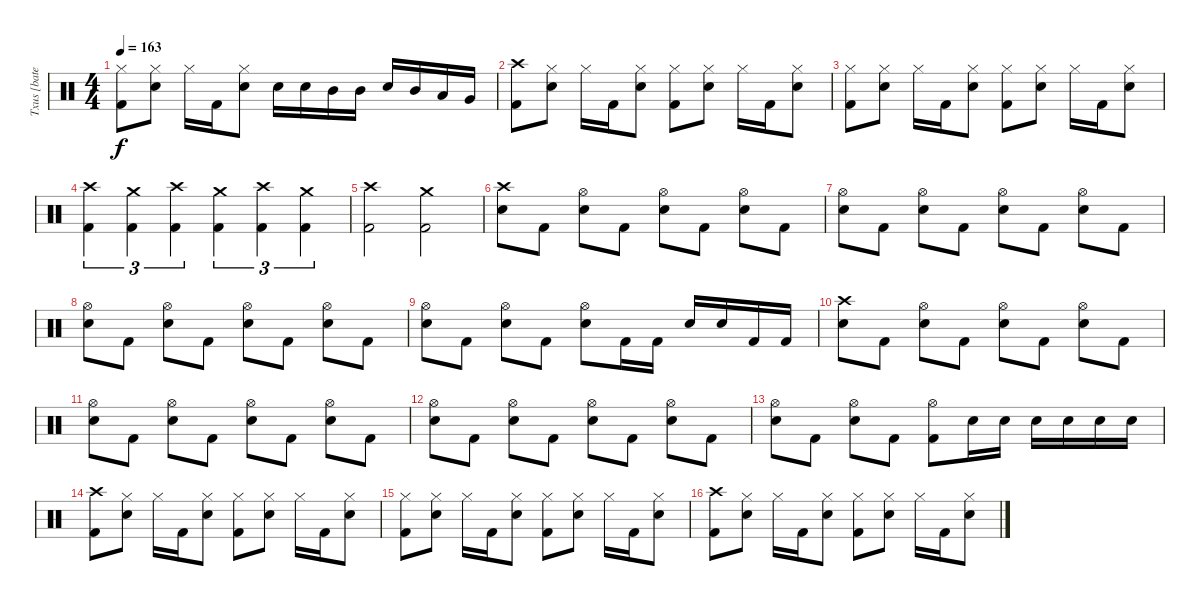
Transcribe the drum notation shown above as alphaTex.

\track ("Txus [bateria]" "Txus [bate") {instrument percussion}
\staff {score}
\articulation defaults
\ts (4 4)
\tempo 163
\clef neutral
\ks c
("Hi-Hat (closed)" "Kick (hit) 2").8{dy f} ("Hi-Hat (closed)" "Snare (hit) 2").8 "Hi-Hat (closed)".16 "Kick (hit) 2".16 ("Hi-Hat (closed)" "Snare (hit) 2").8 "Snare (hit) 2".16 "Snare (hit) 2".16 "Mid Tom (hit)".16 "Mid Tom (hit)".16 "Snare (hit) 2".16 "Mid Tom (hit)".16 "Low Tom (hit)".16 "Very Low Tom (hit)".16 |
("Crash high (hit)" "Kick (hit) 2").8 ("Hi-Hat (closed)" "Snare (hit) 2").8 "Hi-Hat (closed)".16 "Kick (hit) 2".16 ("Hi-Hat (closed)" "Snare (hit) 2").8 ("Hi-Hat (closed)" "Kick (hit) 2").8 ("Hi-Hat (closed)" "Snare (hit) 2").8 "Hi-Hat (closed)".16 "Kick (hit) 2".16 ("Hi-Hat (closed)" "Snare (hit) 2").8 |
("Hi-Hat (closed)" "Kick (hit) 2").8 ("Hi-Hat (closed)" "Snare (hit) 2").8 "Hi-Hat (closed)".16 "Kick (hit) 2".16 ("Hi-Hat (closed)" "Snare (hit) 2").8 ("Hi-Hat (closed)" "Kick (hit) 2").8 ("Hi-Hat (closed)" "Snare (hit) 2").8 "Hi-Hat (closed)".16 "Kick (hit) 2".16 ("Hi-Hat (closed)" "Snare (hit) 2").8 |
("Crash high (hit)" "Kick (hit) 2").4{tu (3 2)} ("Crash medium (hit)" "Kick (hit) 2").4{tu (3 2)} ("Crash high (hit)" "Kick (hit) 2").4{tu (3 2)} ("Crash medium (hit)" "Kick (hit) 2").4{tu (3 2)} ("Crash high (hit)" "Kick (hit) 2").4{tu (3 2)} ("Crash medium (hit)" "Kick (hit) 2").4{tu (3 2)} |
("Crash high (hit)" "Kick (hit) 2").2 ("Crash medium (hit)" "Kick (hit) 2").2 |
("Crash high (hit)" "Snare (hit) 2").8 "Kick (hit) 2".8 ("Hi-Hat (open)" "Snare (hit) 2").8 "Kick (hit) 2".8 ("Hi-Hat (open)" "Snare (hit) 2").8 "Kick (hit) 2".8 ("Hi-Hat (open)" "Snare (hit) 2").8 "Kick (hit) 2".8 |
("Hi-Hat (open)" "Snare (hit) 2").8 "Kick (hit) 2".8 ("Hi-Hat (open)" "Snare (hit) 2").8 "Kick (hit) 2".8 ("Hi-Hat (open)" "Snare (hit) 2").8 "Kick (hit) 2".8 ("Hi-Hat (open)" "Snare (hit) 2").8 "Kick (hit) 2".8 |
("Hi-Hat (open)" "Snare (hit) 2").8 "Kick (hit) 2".8 ("Hi-Hat (open)" "Snare (hit) 2").8 "Kick (hit) 2".8 ("Hi-Hat (open)" "Snare (hit) 2").8 "Kick (hit) 2".8 ("Hi-Hat (open)" "Snare (hit) 2").8 "Kick (hit) 2".8 |
("Hi-Hat (open)" "Snare (hit) 2").8 "Kick (hit) 2".8 ("Hi-Hat (open)" "Snare (hit) 2").8 "Kick (hit) 2".8 ("Hi-Hat (open)" "Snare (hit) 2").8 "Kick (hit) 2".16 "Kick (hit) 2".16 "Snare (hit) 2".16 "Snare (hit) 2".16 "Kick (hit) 2".16 "Kick (hit) 2".16 |
("Crash high (hit)" "Snare (hit) 2").8 "Kick (hit) 2".8 ("Hi-Hat (open)" "Snare (hit) 2").8 "Kick (hit) 2".8 ("Hi-Hat (open)" "Snare (hit) 2").8 "Kick (hit) 2".8 ("Hi-Hat (open)" "Snare (hit) 2").8 "Kick (hit) 2".8 |
("Hi-Hat (open)" "Snare (hit) 2").8 "Kick (hit) 2".8 ("Hi-Hat (open)" "Snare (hit) 2").8 "Kick (hit) 2".8 ("Hi-Hat (open)" "Snare (hit) 2").8 "Kick (hit) 2".8 ("Hi-Hat (open)" "Snare (hit) 2").8 "Kick (hit) 2".8 |
("Hi-Hat (open)" "Snare (hit) 2").8 "Kick (hit) 2".8 ("Hi-Hat (open)" "Snare (hit) 2").8 "Kick (hit) 2".8 ("Hi-Hat (open)" "Snare (hit) 2").8 "Kick (hit) 2".8 ("Hi-Hat (open)" "Snare (hit) 2").8 "Kick (hit) 2".8 |
("Hi-Hat (open)" "Snare (hit) 2").8 "Kick (hit) 2".8 ("Hi-Hat (open)" "Snare (hit) 2").8 "Kick (hit) 2".8 ("Hi-Hat (open)" "Kick (hit) 2").8 "Snare (hit) 2".16 "Snare (hit) 2".16 "Snare (hit) 2".16 "Snare (hit) 2".16 "Snare (hit) 2".16 "Snare (hit) 2".16 |
("Crash high (hit)" "Kick (hit) 2").8 ("Hi-Hat (closed)" "Snare (hit) 2").8 "Hi-Hat (closed)".16 "Kick (hit) 2".16 ("Hi-Hat (closed)" "Snare (hit) 2").8 ("Hi-Hat (closed)" "Kick (hit) 2").8 ("Hi-Hat (closed)" "Snare (hit) 2").8 "Hi-Hat (closed)".16 "Kick (hit) 2".16 ("Hi-Hat (closed)" "Snare (hit) 2").8 |
("Hi-Hat (closed)" "Kick (hit) 2").8 ("Hi-Hat (closed)" "Snare (hit) 2").8 "Hi-Hat (closed)".16 "Kick (hit) 2".16 ("Hi-Hat (closed)" "Snare (hit) 2").8 ("Hi-Hat (closed)" "Kick (hit) 2").8 ("Hi-Hat (closed)" "Snare (hit) 2").8 "Hi-Hat (closed)".16 "Kick (hit) 2".16 ("Hi-Hat (closed)" "Snare (hit) 2").8 |
("Crash high (hit)" "Kick (hit) 2").8 ("Hi-Hat (closed)" "Snare (hit) 2").8 "Hi-Hat (closed)".16 "Kick (hit) 2".16 ("Hi-Hat (closed)" "Snare (hit) 2").8 ("Hi-Hat (closed)" "Kick (hit) 2").8 ("Hi-Hat (closed)" "Snare (hit) 2").8 "Hi-Hat (closed)".16 "Kick (hit) 2".16 ("Hi-Hat (closed)" "Snare (hit) 2").8
